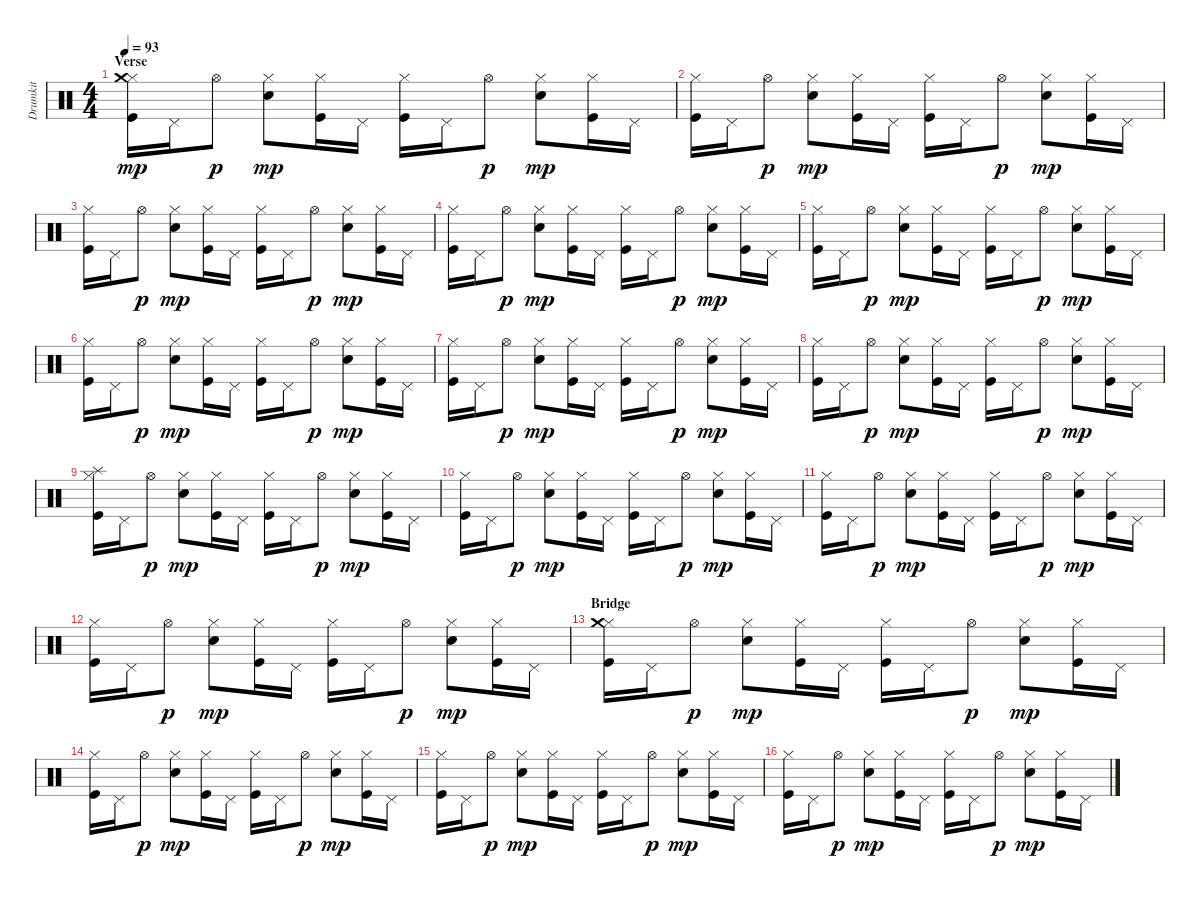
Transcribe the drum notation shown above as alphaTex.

\track ("Drumkit" "Drumkit") {instrument percussion}
\staff {score}
\articulation defaults
\ts (4 4)
\section ("" "Verse")
\tempo 93
\clef neutral
\ks c
("Hi-Hat (closed)" "Crash medium (hit)" "Kick (hit)").16{dy mp} "Pedal Hi-Hat (hit)".16 "Hi-Hat (open)".8{dy p} ("Hi-Hat (closed)" "Snare (hit) 2").8{dy mp} ("Hi-Hat (closed)" "Kick (hit)").16 "Pedal Hi-Hat (hit)".16 ("Hi-Hat (closed)" "Kick (hit)").16 "Pedal Hi-Hat (hit)".16 "Hi-Hat (open)".8{dy p} ("Hi-Hat (closed)" "Snare (hit) 2").8{dy mp} ("Hi-Hat (closed)" "Kick (hit)").16 "Pedal Hi-Hat (hit)".16 |
("Hi-Hat (closed)" "Kick (hit)").16 "Pedal Hi-Hat (hit)".16 "Hi-Hat (open)".8{dy p} ("Hi-Hat (closed)" "Snare (hit) 2").8{dy mp} ("Hi-Hat (closed)" "Kick (hit)").16 "Pedal Hi-Hat (hit)".16 ("Hi-Hat (closed)" "Kick (hit)").16 "Pedal Hi-Hat (hit)".16 "Hi-Hat (open)".8{dy p} ("Hi-Hat (closed)" "Snare (hit) 2").8{dy mp} ("Hi-Hat (closed)" "Kick (hit)").16 "Pedal Hi-Hat (hit)".16 |
("Hi-Hat (closed)" "Kick (hit)").16 "Pedal Hi-Hat (hit)".16 "Hi-Hat (open)".8{dy p} ("Hi-Hat (closed)" "Snare (hit) 2").8{dy mp} ("Hi-Hat (closed)" "Kick (hit)").16 "Pedal Hi-Hat (hit)".16 ("Hi-Hat (closed)" "Kick (hit)").16 "Pedal Hi-Hat (hit)".16 "Hi-Hat (open)".8{dy p} ("Hi-Hat (closed)" "Snare (hit) 2").8{dy mp} ("Hi-Hat (closed)" "Kick (hit)").16 "Pedal Hi-Hat (hit)".16 |
("Hi-Hat (closed)" "Kick (hit)").16 "Pedal Hi-Hat (hit)".16 "Hi-Hat (open)".8{dy p} ("Hi-Hat (closed)" "Snare (hit) 2").8{dy mp} ("Hi-Hat (closed)" "Kick (hit)").16 "Pedal Hi-Hat (hit)".16 ("Hi-Hat (closed)" "Kick (hit)").16 "Pedal Hi-Hat (hit)".16 "Hi-Hat (open)".8{dy p} ("Hi-Hat (closed)" "Snare (hit) 2").8{dy mp} ("Hi-Hat (closed)" "Kick (hit)").16 "Pedal Hi-Hat (hit)".16 |
("Hi-Hat (closed)" "Kick (hit)").16 "Pedal Hi-Hat (hit)".16 "Hi-Hat (open)".8{dy p} ("Hi-Hat (closed)" "Snare (hit) 2").8{dy mp} ("Hi-Hat (closed)" "Kick (hit)").16 "Pedal Hi-Hat (hit)".16 ("Hi-Hat (closed)" "Kick (hit)").16 "Pedal Hi-Hat (hit)".16 "Hi-Hat (open)".8{dy p} ("Hi-Hat (closed)" "Snare (hit) 2").8{dy mp} ("Hi-Hat (closed)" "Kick (hit)").16 "Pedal Hi-Hat (hit)".16 |
("Hi-Hat (closed)" "Kick (hit)").16 "Pedal Hi-Hat (hit)".16 "Hi-Hat (open)".8{dy p} ("Hi-Hat (closed)" "Snare (hit) 2").8{dy mp} ("Hi-Hat (closed)" "Kick (hit)").16 "Pedal Hi-Hat (hit)".16 ("Hi-Hat (closed)" "Kick (hit)").16 "Pedal Hi-Hat (hit)".16 "Hi-Hat (open)".8{dy p} ("Hi-Hat (closed)" "Snare (hit) 2").8{dy mp} ("Hi-Hat (closed)" "Kick (hit)").16 "Pedal Hi-Hat (hit)".16 |
("Hi-Hat (closed)" "Kick (hit)").16 "Pedal Hi-Hat (hit)".16 "Hi-Hat (open)".8{dy p} ("Hi-Hat (closed)" "Snare (hit) 2").8{dy mp} ("Hi-Hat (closed)" "Kick (hit)").16 "Pedal Hi-Hat (hit)".16 ("Hi-Hat (closed)" "Kick (hit)").16 "Pedal Hi-Hat (hit)".16 "Hi-Hat (open)".8{dy p} ("Hi-Hat (closed)" "Snare (hit) 2").8{dy mp} ("Hi-Hat (closed)" "Kick (hit)").16 "Pedal Hi-Hat (hit)".16 |
("Hi-Hat (closed)" "Kick (hit)").16 "Pedal Hi-Hat (hit)".16 "Hi-Hat (open)".8{dy p} ("Hi-Hat (closed)" "Snare (hit) 2").8{dy mp} ("Hi-Hat (closed)" "Kick (hit)").16 "Pedal Hi-Hat (hit)".16 ("Hi-Hat (closed)" "Kick (hit)").16 "Pedal Hi-Hat (hit)".16 "Hi-Hat (open)".8{dy p} ("Hi-Hat (closed)" "Snare (hit) 2").8{dy mp} ("Hi-Hat (closed)" "Kick (hit)").16 "Pedal Hi-Hat (hit)".16 |
("Hi-Hat (closed)" "Splash (hit)" "Kick (hit)").16 "Pedal Hi-Hat (hit)".16 "Hi-Hat (open)".8{dy p} ("Hi-Hat (closed)" "Snare (hit) 2").8{dy mp} ("Hi-Hat (closed)" "Kick (hit)").16 "Pedal Hi-Hat (hit)".16 ("Hi-Hat (closed)" "Kick (hit)").16 "Pedal Hi-Hat (hit)".16 "Hi-Hat (open)".8{dy p} ("Hi-Hat (closed)" "Snare (hit) 2").8{dy mp} ("Hi-Hat (closed)" "Kick (hit)").16 "Pedal Hi-Hat (hit)".16 |
("Hi-Hat (closed)" "Kick (hit)").16 "Pedal Hi-Hat (hit)".16 "Hi-Hat (open)".8{dy p} ("Hi-Hat (closed)" "Snare (hit) 2").8{dy mp} ("Hi-Hat (closed)" "Kick (hit)").16 "Pedal Hi-Hat (hit)".16 ("Hi-Hat (closed)" "Kick (hit)").16 "Pedal Hi-Hat (hit)".16 "Hi-Hat (open)".8{dy p} ("Hi-Hat (closed)" "Snare (hit) 2").8{dy mp} ("Hi-Hat (closed)" "Kick (hit)").16 "Pedal Hi-Hat (hit)".16 |
("Hi-Hat (closed)" "Kick (hit)").16 "Pedal Hi-Hat (hit)".16 "Hi-Hat (open)".8{dy p} ("Hi-Hat (closed)" "Snare (hit) 2").8{dy mp} ("Hi-Hat (closed)" "Kick (hit)").16 "Pedal Hi-Hat (hit)".16 ("Hi-Hat (closed)" "Kick (hit)").16 "Pedal Hi-Hat (hit)".16 "Hi-Hat (open)".8{dy p} ("Hi-Hat (closed)" "Snare (hit) 2").8{dy mp} ("Hi-Hat (closed)" "Kick (hit)").16 "Pedal Hi-Hat (hit)".16 |
("Hi-Hat (closed)" "Kick (hit)").16 "Pedal Hi-Hat (hit)".16 "Hi-Hat (open)".8{dy p} ("Hi-Hat (closed)" "Snare (hit) 2").8{dy mp} ("Hi-Hat (closed)" "Kick (hit)").16 "Pedal Hi-Hat (hit)".16 ("Hi-Hat (closed)" "Kick (hit)").16 "Pedal Hi-Hat (hit)".16 "Hi-Hat (open)".8{dy p} ("Hi-Hat (closed)" "Snare (hit) 2").8{dy mp} ("Hi-Hat (closed)" "Kick (hit)").16 "Pedal Hi-Hat (hit)".16 |
\section ("" "Bridge")
("Hi-Hat (closed)" "Crash medium (hit)" "Kick (hit)").16 "Pedal Hi-Hat (hit)".16 "Hi-Hat (open)".8{dy p} ("Hi-Hat (closed)" "Snare (hit) 2").8{dy mp} ("Hi-Hat (closed)" "Kick (hit)").16 "Pedal Hi-Hat (hit)".16 ("Hi-Hat (closed)" "Kick (hit)").16 "Pedal Hi-Hat (hit)".16 "Hi-Hat (open)".8{dy p} ("Hi-Hat (closed)" "Snare (hit) 2").8{dy mp} ("Hi-Hat (closed)" "Kick (hit)").16 "Pedal Hi-Hat (hit)".16 |
("Hi-Hat (closed)" "Kick (hit)").16 "Pedal Hi-Hat (hit)".16 "Hi-Hat (open)".8{dy p} ("Hi-Hat (closed)" "Snare (hit) 2").8{dy mp} ("Hi-Hat (closed)" "Kick (hit)").16 "Pedal Hi-Hat (hit)".16 ("Hi-Hat (closed)" "Kick (hit)").16 "Pedal Hi-Hat (hit)".16 "Hi-Hat (open)".8{dy p} ("Hi-Hat (closed)" "Snare (hit) 2").8{dy mp} ("Hi-Hat (closed)" "Kick (hit)").16 "Pedal Hi-Hat (hit)".16 |
("Hi-Hat (closed)" "Kick (hit)").16 "Pedal Hi-Hat (hit)".16 "Hi-Hat (open)".8{dy p} ("Hi-Hat (closed)" "Snare (hit) 2").8{dy mp} ("Hi-Hat (closed)" "Kick (hit)").16 "Pedal Hi-Hat (hit)".16 ("Hi-Hat (closed)" "Kick (hit)").16 "Pedal Hi-Hat (hit)".16 "Hi-Hat (open)".8{dy p} ("Hi-Hat (closed)" "Snare (hit) 2").8{dy mp} ("Hi-Hat (closed)" "Kick (hit)").16 "Pedal Hi-Hat (hit)".16 |
("Hi-Hat (closed)" "Kick (hit)").16 "Pedal Hi-Hat (hit)".16 "Hi-Hat (open)".8{dy p} ("Hi-Hat (closed)" "Snare (hit) 2").8{dy mp} ("Hi-Hat (closed)" "Kick (hit)").16 "Pedal Hi-Hat (hit)".16 ("Hi-Hat (closed)" "Kick (hit)").16 "Pedal Hi-Hat (hit)".16 "Hi-Hat (open)".8{dy p} ("Hi-Hat (closed)" "Snare (hit) 2").8{dy mp} ("Hi-Hat (closed)" "Kick (hit)").16 "Pedal Hi-Hat (hit)".16
